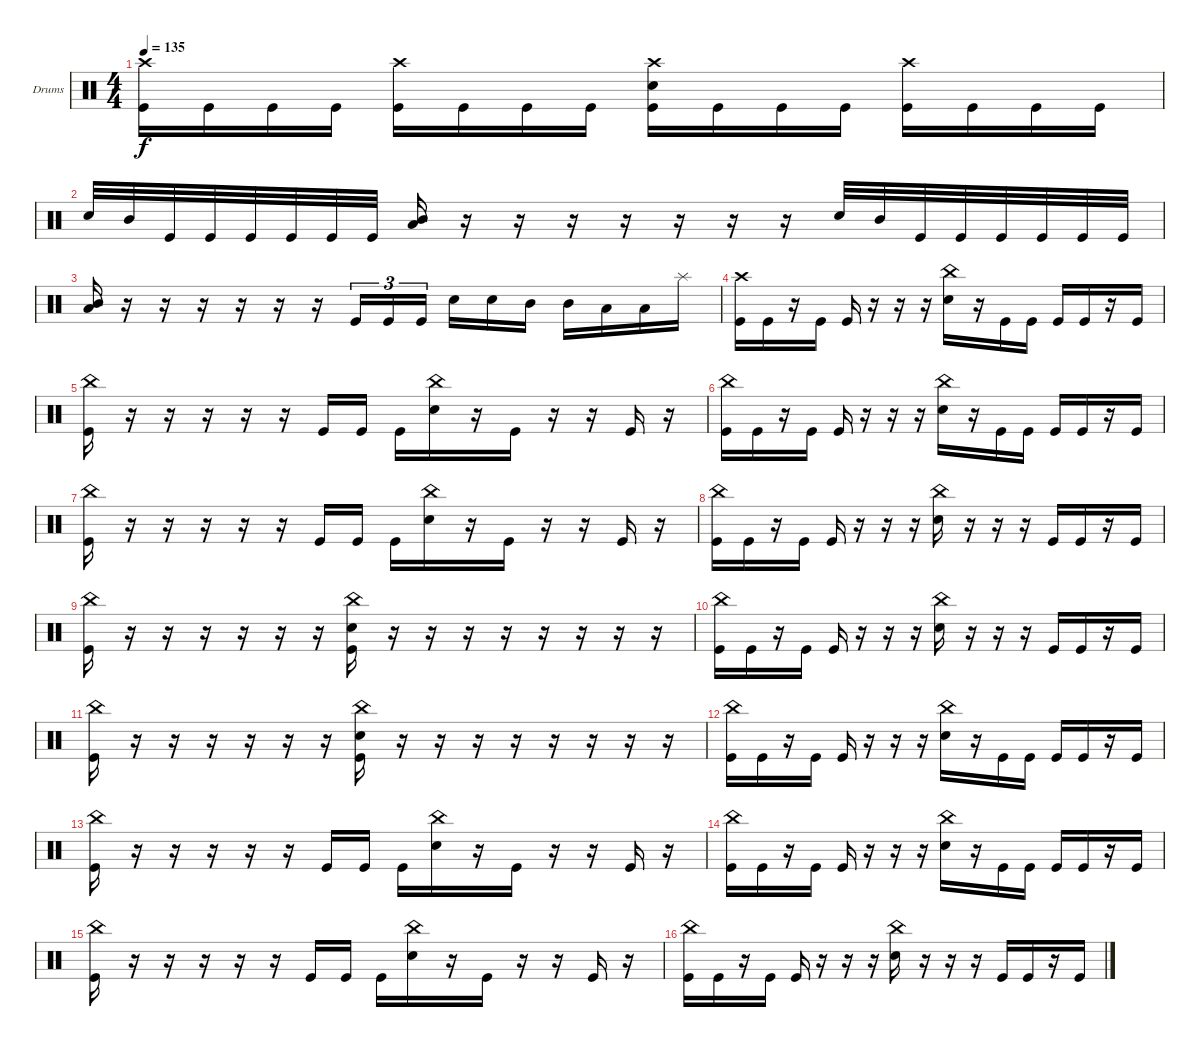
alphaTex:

\bracketExtendMode groupsimilarinstruments
\firstSystemTrackNameOrientation horizontal
\otherSystemsTrackNameOrientation horizontal
\track ("Drumkit" "Drums") {instrument percussion}
\staff {score}
\articulation defaults
\ts (4 4)
\tempo 135
\clef neutral
\ks c
("Crash high (hit)" "Kick (hit)").16{dy f} "Kick (hit)".16 "Kick (hit)".16 "Kick (hit)".16 ("Crash high (hit)" "Kick (hit)").16 "Kick (hit)".16 "Kick (hit)".16 "Kick (hit)".16 ("Crash high (hit)" "Snare (hit) 2" "Kick (hit)").16 "Kick (hit)".16 "Kick (hit)".16 "Kick (hit)".16 ("Crash high (hit)" "Kick (hit)").16 "Kick (hit)".16 "Kick (hit)".16 "Kick (hit)".16 |
"Snare (hit) 2".32 "Mid Tom (hit)".32 "Kick (hit)".32 "Kick (hit)".32 "Kick (hit)".32 "Kick (hit)".32 "Kick (hit)".32 "Kick (hit)".32 ("Mid Tom (hit)" "Low Tom (hit)").16 r.16 r.16 r.16 r.16 r.16 r.16 r.16 "Snare (hit) 2".32 "Mid Tom (hit)".32 "Kick (hit)".32 "Kick (hit)".32 "Kick (hit)".32 "Kick (hit)".32 "Kick (hit)".32 "Kick (hit)".32 |
("Mid Tom (hit)" "Low Tom (hit)").16 r.16 r.16 r.16 r.16 r.16 r.16 "Kick (hit)".16{tu (3 2)} "Kick (hit)".16{tu (3 2)} "Kick (hit)".16{tu (3 2)} "Snare (hit) 2".16 "Snare (hit) 2".16 "Mid Tom (hit)".16 "Mid Tom (hit)".16 "Low Tom (hit)".16 "Low Tom (hit)".16 "Splash (hit)".16 |
("Crash high (hit)" "Kick (hit)").16 "Kick (hit)".16 r.16 "Kick (hit)".16 "Kick (hit)".16 r.16 r.16 r.16 ("China (hit)" "Snare (hit) 2").16 r.16 "Kick (hit)".16 "Kick (hit)".16 "Kick (hit)".16 "Kick (hit)".16 r.16 "Kick (hit)".16 |
("China (hit)" "Kick (hit)").16 r.16 r.16 r.16 r.16 r.16 "Kick (hit)".16 "Kick (hit)".16 "Kick (hit)".16 ("China (hit)" "Snare (hit) 2").16 r.16 "Kick (hit)".16 r.16 r.16 "Kick (hit)".16 r.16 |
("China (hit)" "Kick (hit)").16 "Kick (hit)".16 r.16 "Kick (hit)".16 "Kick (hit)".16 r.16 r.16 r.16 ("China (hit)" "Snare (hit) 2").16 r.16 "Kick (hit)".16 "Kick (hit)".16 "Kick (hit)".16 "Kick (hit)".16 r.16 "Kick (hit)".16 |
("China (hit)" "Kick (hit)").16 r.16 r.16 r.16 r.16 r.16 "Kick (hit)".16 "Kick (hit)".16 "Kick (hit)".16 ("China (hit)" "Snare (hit) 2").16 r.16 "Kick (hit)".16 r.16 r.16 "Kick (hit)".16 r.16 |
("China (hit)" "Kick (hit)").16 "Kick (hit)".16 r.16 "Kick (hit)".16 "Kick (hit)".16 r.16 r.16 r.16 ("China (hit)" "Snare (hit) 2").16 r.16 r.16 r.16 "Kick (hit)".16 "Kick (hit)".16 r.16 "Kick (hit)".16 |
("China (hit)" "Kick (hit)").16 r.16 r.16 r.16 r.16 r.16 r.16 ("China (hit)" "Snare (hit) 2" "Kick (hit)").16 r.16 r.16 r.16 r.16 r.16 r.16 r.16 r.16 |
("China (hit)" "Kick (hit)").16 "Kick (hit)".16 r.16 "Kick (hit)".16 "Kick (hit)".16 r.16 r.16 r.16 ("China (hit)" "Snare (hit) 2").16 r.16 r.16 r.16 "Kick (hit)".16 "Kick (hit)".16 r.16 "Kick (hit)".16 |
("China (hit)" "Kick (hit)").16 r.16 r.16 r.16 r.16 r.16 r.16 ("China (hit)" "Snare (hit) 2" "Kick (hit)").16 r.16 r.16 r.16 r.16 r.16 r.16 r.16 r.16 |
("China (hit)" "Kick (hit)").16 "Kick (hit)".16 r.16 "Kick (hit)".16 "Kick (hit)".16 r.16 r.16 r.16 ("China (hit)" "Snare (hit) 2").16 r.16 "Kick (hit)".16 "Kick (hit)".16 "Kick (hit)".16 "Kick (hit)".16 r.16 "Kick (hit)".16 |
("China (hit)" "Kick (hit)").16 r.16 r.16 r.16 r.16 r.16 "Kick (hit)".16 "Kick (hit)".16 "Kick (hit)".16 ("China (hit)" "Snare (hit) 2").16 r.16 "Kick (hit)".16 r.16 r.16 "Kick (hit)".16 r.16 |
("China (hit)" "Kick (hit)").16 "Kick (hit)".16 r.16 "Kick (hit)".16 "Kick (hit)".16 r.16 r.16 r.16 ("China (hit)" "Snare (hit) 2").16 r.16 "Kick (hit)".16 "Kick (hit)".16 "Kick (hit)".16 "Kick (hit)".16 r.16 "Kick (hit)".16 |
("China (hit)" "Kick (hit)").16 r.16 r.16 r.16 r.16 r.16 "Kick (hit)".16 "Kick (hit)".16 "Kick (hit)".16 ("China (hit)" "Snare (hit) 2").16 r.16 "Kick (hit)".16 r.16 r.16 "Kick (hit)".16 r.16 |
("China (hit)" "Kick (hit)").16 "Kick (hit)".16 r.16 "Kick (hit)".16 "Kick (hit)".16 r.16 r.16 r.16 ("China (hit)" "Snare (hit) 2").16 r.16 r.16 r.16 "Kick (hit)".16 "Kick (hit)".16 r.16 "Kick (hit)".16
